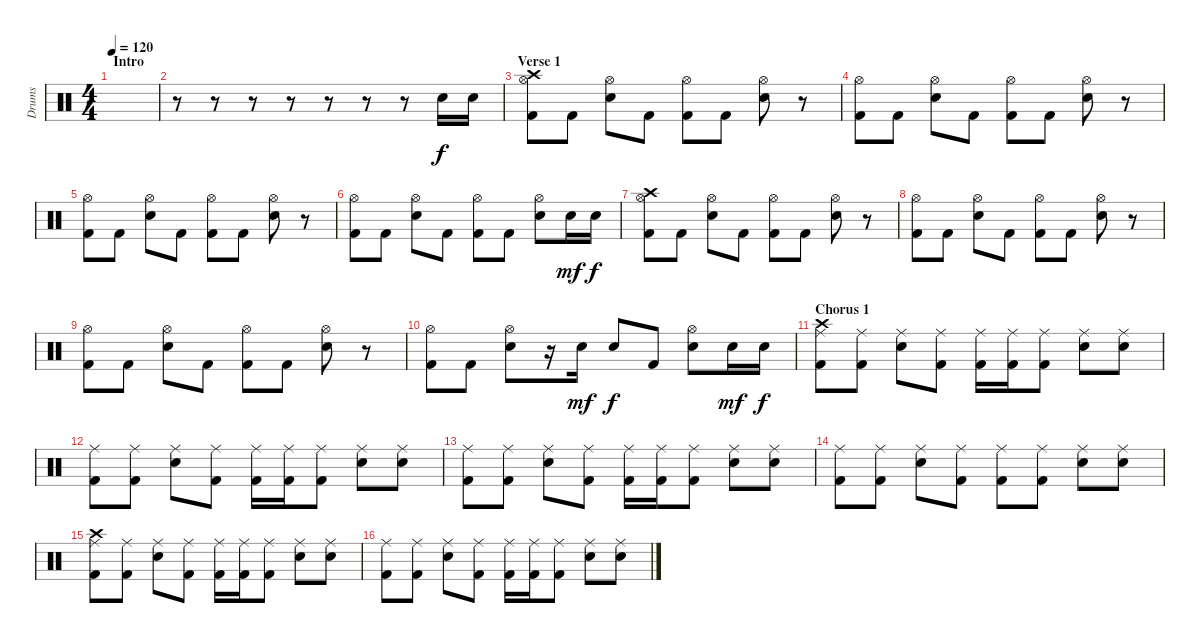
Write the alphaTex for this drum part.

\track ("Drums" "Drums") {instrument percussion}
\staff {score}
\articulation defaults
\ts (4 4)
\section ("" "Intro")
\tempo 120
\clef neutral
\ks c
|
r.8 r.8 r.8 r.8 r.8 r.8 r.8 "Electric Snare (hit)".16 "Electric Snare (hit)".16{dy f} |
\section ("" "Verse 1")
("Hi-Hat (open)" "Crash high (hit)" "Kick (hit) 2").8 "Kick (hit) 2".8 ("Hi-Hat (open)" "Electric Snare (hit)").8 "Kick (hit) 2".8 ("Hi-Hat (open)" "Kick (hit) 2").8 "Kick (hit) 2".8 ("Hi-Hat (open)" "Electric Snare (hit)").8 r.8 |
("Hi-Hat (open)" "Kick (hit) 2").8 "Kick (hit) 2".8 ("Hi-Hat (open)" "Electric Snare (hit)").8 "Kick (hit) 2".8 ("Hi-Hat (open)" "Kick (hit) 2").8 "Kick (hit) 2".8 ("Hi-Hat (open)" "Electric Snare (hit)").8 r.8 |
("Hi-Hat (open)" "Kick (hit) 2").8 "Kick (hit) 2".8 ("Hi-Hat (open)" "Electric Snare (hit)").8 "Kick (hit) 2".8 ("Hi-Hat (open)" "Kick (hit) 2").8 "Kick (hit) 2".8 ("Hi-Hat (open)" "Electric Snare (hit)").8 r.8 |
("Hi-Hat (open)" "Kick (hit) 2").8 "Kick (hit) 2".8 ("Hi-Hat (open)" "Electric Snare (hit)").8 "Kick (hit) 2".8 ("Hi-Hat (open)" "Kick (hit) 2").8 "Kick (hit) 2".8 ("Hi-Hat (open)" "Electric Snare (hit)").8 "Electric Snare (hit)".16{dy mf} "Electric Snare (hit)".16{dy f} |
("Hi-Hat (open)" "Crash high (hit)" "Kick (hit) 2").8 "Kick (hit) 2".8 ("Hi-Hat (open)" "Electric Snare (hit)").8 "Kick (hit) 2".8 ("Hi-Hat (open)" "Kick (hit) 2").8 "Kick (hit) 2".8 ("Hi-Hat (open)" "Electric Snare (hit)").8 r.8 |
("Hi-Hat (open)" "Kick (hit) 2").8 "Kick (hit) 2".8 ("Hi-Hat (open)" "Electric Snare (hit)").8 "Kick (hit) 2".8 ("Hi-Hat (open)" "Kick (hit) 2").8 "Kick (hit) 2".8 ("Hi-Hat (open)" "Electric Snare (hit)").8 r.8 |
("Hi-Hat (open)" "Kick (hit) 2").8 "Kick (hit) 2".8 ("Hi-Hat (open)" "Electric Snare (hit)").8 "Kick (hit) 2".8 ("Hi-Hat (open)" "Kick (hit) 2").8 "Kick (hit) 2".8 ("Hi-Hat (open)" "Electric Snare (hit)").8 r.8 |
("Hi-Hat (open)" "Kick (hit) 2").8 "Kick (hit) 2".8 ("Hi-Hat (open)" "Electric Snare (hit)").8 r.16 "Electric Snare (hit)".16{dy mf} "Electric Snare (hit)".8{dy f} "Kick (hit) 2".8 ("Hi-Hat (open)" "Electric Snare (hit)").8 "Electric Snare (hit)".16{dy mf} "Electric Snare (hit)".16{dy f} |
\section ("" "Chorus 1")
("Ride (middle)" "Crash high (hit)" "Kick (hit) 2").8 ("Ride (middle)" "Kick (hit) 2").8 ("Ride (middle)" "Electric Snare (hit)").8 ("Ride (middle)" "Kick (hit) 2").8 ("Ride (middle)" "Kick (hit) 2").16 ("Ride (middle)" "Kick (hit) 2").16 ("Ride (middle)" "Kick (hit) 2").8 ("Ride (middle)" "Electric Snare (hit)").8 ("Ride (middle)" "Electric Snare (hit)").8 |
("Ride (middle)" "Kick (hit) 2").8 ("Ride (middle)" "Kick (hit) 2").8 ("Ride (middle)" "Electric Snare (hit)").8 ("Ride (middle)" "Kick (hit) 2").8 ("Ride (middle)" "Kick (hit) 2").16 ("Ride (middle)" "Kick (hit) 2").16 ("Ride (middle)" "Kick (hit) 2").8 ("Ride (middle)" "Electric Snare (hit)").8 ("Ride (middle)" "Electric Snare (hit)").8 |
("Ride (middle)" "Kick (hit) 2").8 ("Ride (middle)" "Kick (hit) 2").8 ("Ride (middle)" "Electric Snare (hit)").8 ("Ride (middle)" "Kick (hit) 2").8 ("Ride (middle)" "Kick (hit) 2").16 ("Ride (middle)" "Kick (hit) 2").16 ("Ride (middle)" "Kick (hit) 2").8 ("Ride (middle)" "Electric Snare (hit)").8 ("Ride (middle)" "Electric Snare (hit)").8 |
("Ride (middle)" "Kick (hit) 2").8 ("Ride (middle)" "Kick (hit) 2").8 ("Ride (middle)" "Electric Snare (hit)").8 ("Ride (middle)" "Kick (hit) 2").8 ("Ride (middle)" "Kick (hit) 2").8 ("Ride (middle)" "Kick (hit) 2").8 ("Ride (middle)" "Electric Snare (hit)").8 ("Ride (middle)" "Electric Snare (hit)").8 |
("Ride (middle)" "Crash high (hit)" "Kick (hit) 2").8 ("Ride (middle)" "Kick (hit) 2").8 ("Ride (middle)" "Electric Snare (hit)").8 ("Ride (middle)" "Kick (hit) 2").8 ("Ride (middle)" "Kick (hit) 2").16 ("Ride (middle)" "Kick (hit) 2").16 ("Ride (middle)" "Kick (hit) 2").8 ("Ride (middle)" "Electric Snare (hit)").8 ("Ride (middle)" "Electric Snare (hit)").8 |
("Ride (middle)" "Kick (hit) 2").8 ("Ride (middle)" "Kick (hit) 2").8 ("Ride (middle)" "Electric Snare (hit)").8 ("Ride (middle)" "Kick (hit) 2").8 ("Ride (middle)" "Kick (hit) 2").16 ("Ride (middle)" "Kick (hit) 2").16 ("Ride (middle)" "Kick (hit) 2").8 ("Ride (middle)" "Electric Snare (hit)").8 ("Ride (middle)" "Electric Snare (hit)").8
